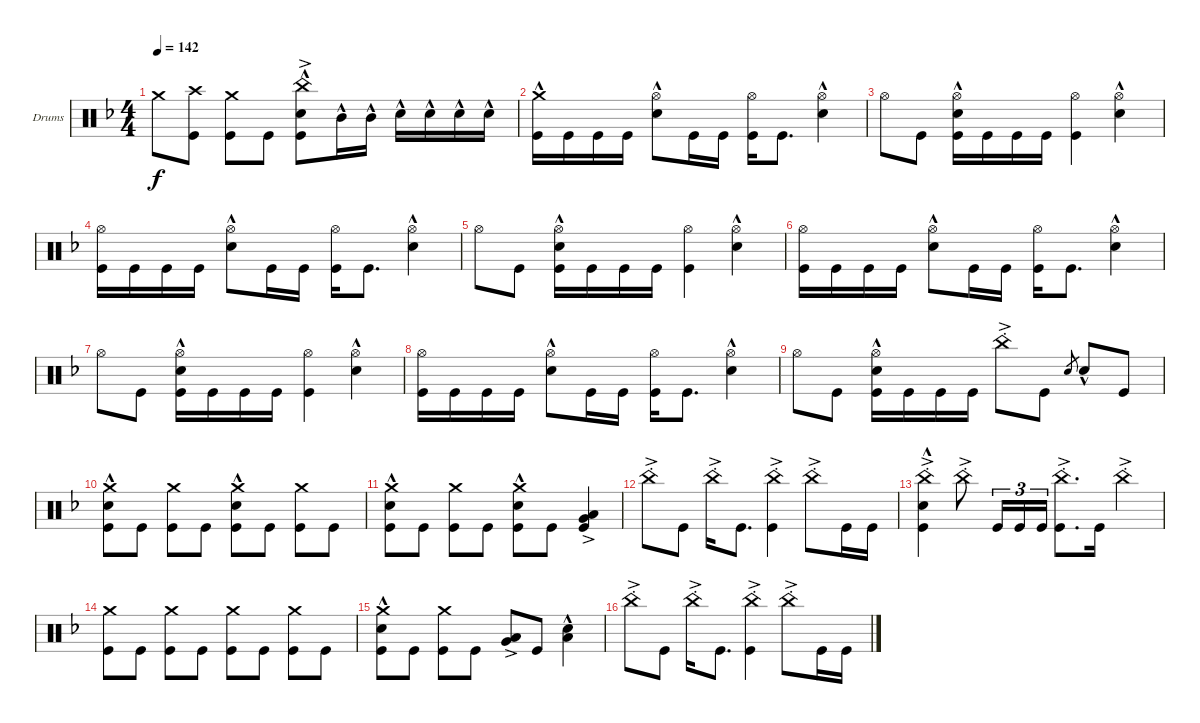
\bracketExtendMode groupsimilarinstruments
\firstSystemTrackNameOrientation horizontal
\otherSystemsTrackNameOrientation horizontal
\track ("Drumkit" "Drums") {instrument percussion}
\staff {score}
\articulation defaults
\ts (4 4)
\tempo 142
\clef neutral
\scale
0.333333
\ks dminor "Crash medium (hit)".8{dy f}
("Kick (hit)" "Crash high (hit)").8 ("Kick (hit)" "Crash medium (hit)").8 "Kick (hit)".8 ("Kick (hit)" "Snare (hit) 2"{hac} "China (hit)"{ac}).8 "Mid Tom (hit)"{hac}.16 "Mid Tom (hit)"{hac}.16 "Snare (hit) 2"{hac}.16 "Snare (hit) 2"{hac}.16 "Snare (hit) 2"{hac}.16 "Snare (hit) 2"{hac}.16 |
\scale
0.333333 ("Kick (hit)" "Crash medium (hit)"{hac}).16 "Kick (hit)".16 "Kick (hit)".16 "Kick (hit)".16 ("Hi-Hat (open)" "Snare (hit) 2"{hac}).8 "Kick (hit)".16 "Kick (hit)".16 ("Kick (hit)" "Hi-Hat (open)").16 "Kick (hit)".8{d} ("Hi-Hat (open)" "Snare (hit) 2"{hac}).4 |
\scale
0.333333 "Hi-Hat (open)".8 "Kick (hit)".8 ("Kick (hit)" "Snare (hit) 2"{hac} "Hi-Hat (open)").16 "Kick (hit)".16 "Kick (hit)".16 "Kick (hit)".16 ("Kick (hit)" "Hi-Hat (open)").4 ("Hi-Hat (open)" "Snare (hit) 2"{hac}).4 |
\scale
0.333333 ("Kick (hit)" "Hi-Hat (open)").16 "Kick (hit)".16 "Kick (hit)".16 "Kick (hit)".16 ("Hi-Hat (open)" "Snare (hit) 2"{hac}).8 "Kick (hit)".16 "Kick (hit)".16 ("Kick (hit)" "Hi-Hat (open)").16 "Kick (hit)".8{d} ("Hi-Hat (open)" "Snare (hit) 2"{hac}).4 |
\scale
0.333333 "Hi-Hat (open)".8 "Kick (hit)".8 ("Kick (hit)" "Snare (hit) 2"{hac} "Hi-Hat (open)").16 "Kick (hit)".16 "Kick (hit)".16 "Kick (hit)".16 ("Kick (hit)" "Hi-Hat (open)").4 ("Hi-Hat (open)" "Snare (hit) 2"{hac}).4 |
\scale
0.333333 ("Kick (hit)" "Hi-Hat (open)").16 "Kick (hit)".16 "Kick (hit)".16 "Kick (hit)".16 ("Hi-Hat (open)" "Snare (hit) 2"{hac}).8 "Kick (hit)".16 "Kick (hit)".16 ("Kick (hit)" "Hi-Hat (open)").16 "Kick (hit)".8{d} ("Hi-Hat (open)" "Snare (hit) 2"{hac}).4 |
\scale
0.333333 "Hi-Hat (open)".8 "Kick (hit)".8 ("Kick (hit)" "Snare (hit) 2"{hac} "Hi-Hat (open)").16 "Kick (hit)".16 "Kick (hit)".16 "Kick (hit)".16 ("Kick (hit)" "Hi-Hat (open)").4 ("Hi-Hat (open)" "Snare (hit) 2"{hac}).4 |
\scale
0.333333 ("Kick (hit)" "Hi-Hat (open)").16 "Kick (hit)".16 "Kick (hit)".16 "Kick (hit)".16 ("Hi-Hat (open)" "Snare (hit) 2"{hac}).8 "Kick (hit)".16 "Kick (hit)".16 ("Kick (hit)" "Hi-Hat (open)").16 "Kick (hit)".8{d} ("Hi-Hat (open)" "Snare (hit) 2"{hac}).4 |
\scale
0.333333 "Hi-Hat (open)".8 "Kick (hit)".8 ("Kick (hit)" "Snare (hit) 2"{hac} "Hi-Hat (open)").16 "Kick (hit)".16 "Kick (hit)".16 "Kick (hit)".16 "China (hit)"{ac st}.8 "Kick (hit)".8 "Snare (hit) 2".8{gr} "Snare (hit) 2"{hac}.8 "Kick (hit)".8 |
\scale
0.333333 ("Kick (hit)" "Crash medium (hit)" "Snare (hit) 2"{hac}).8 "Kick (hit)".8 ("Kick (hit)" "Crash medium (hit)").8 "Kick (hit)".8 ("Kick (hit)" "Crash medium (hit)" "Snare (hit) 2"{hac}).8 "Kick (hit)".8 ("Kick (hit)" "Crash medium (hit)").8 "Kick (hit)".8 |
\scale
0.333333 ("Kick (hit)" "Crash medium (hit)" "Snare (hit) 2"{hac}).8 "Kick (hit)".8 ("Kick (hit)" "Crash medium (hit)").8 "Kick (hit)".8 ("Kick (hit)" "Crash medium (hit)" "Snare (hit) 2"{hac}).8 "Kick (hit)".8 ("Kick (hit)" "Low Tom (hit)"{ac} "Very Low Tom (hit)"{ac}).4 |
\scale
0.333333 "China (hit)"{ac st}.8 "Kick (hit)".8 "China (hit)"{ac st}.16 "Kick (hit)".8{d} ("China (hit)"{ac st} "Kick (hit)").4 "China (hit)"{ac st}.8 "Kick (hit)".16 "Kick (hit)".16 |
\scale
0.333333 ("Kick (hit)" "China (hit)"{ac st} "Snare (hit) 2"{hac}).4 "China (hit)"{ac st}.8 "Kick (hit)".16{tu (3 2)} "Kick (hit)".16{tu (3 2)} "Kick (hit)".16{tu (3 2)} ("Kick (hit)" "China (hit)"{ac st}).8{d} "Kick (hit)".16 "China (hit)"{ac st}.4 |
\scale
0.333333 ("Kick (hit)" "Crash medium (hit)").8 "Kick (hit)".8 ("Kick (hit)" "Crash medium (hit)").8 "Kick (hit)".8 ("Kick (hit)" "Crash medium (hit)").8 "Kick (hit)".8 ("Kick (hit)" "Crash medium (hit)").8 "Kick (hit)".8 |
\scale
0.333333 ("Kick (hit)" "Crash medium (hit)" "Snare (hit) 2"{hac}).8 "Kick (hit)".8 ("Kick (hit)" "Crash medium (hit)").8 "Kick (hit)".8 ("Low Tom (hit)"{ac} "Very Low Tom (hit)"{ac}).8 "Kick (hit)".8 ("Snare (hit) 2"{hac} "Low Tom (hit)"{hac}).4 |
\scale
0.333333 "China (hit)"{ac st}.8 "Kick (hit)".8 "China (hit)"{ac st}.16 "Kick (hit)".8{d} ("China (hit)"{ac st} "Kick (hit)").4 "China (hit)"{ac st}.8 "Kick (hit)".16 "Kick (hit)".16
